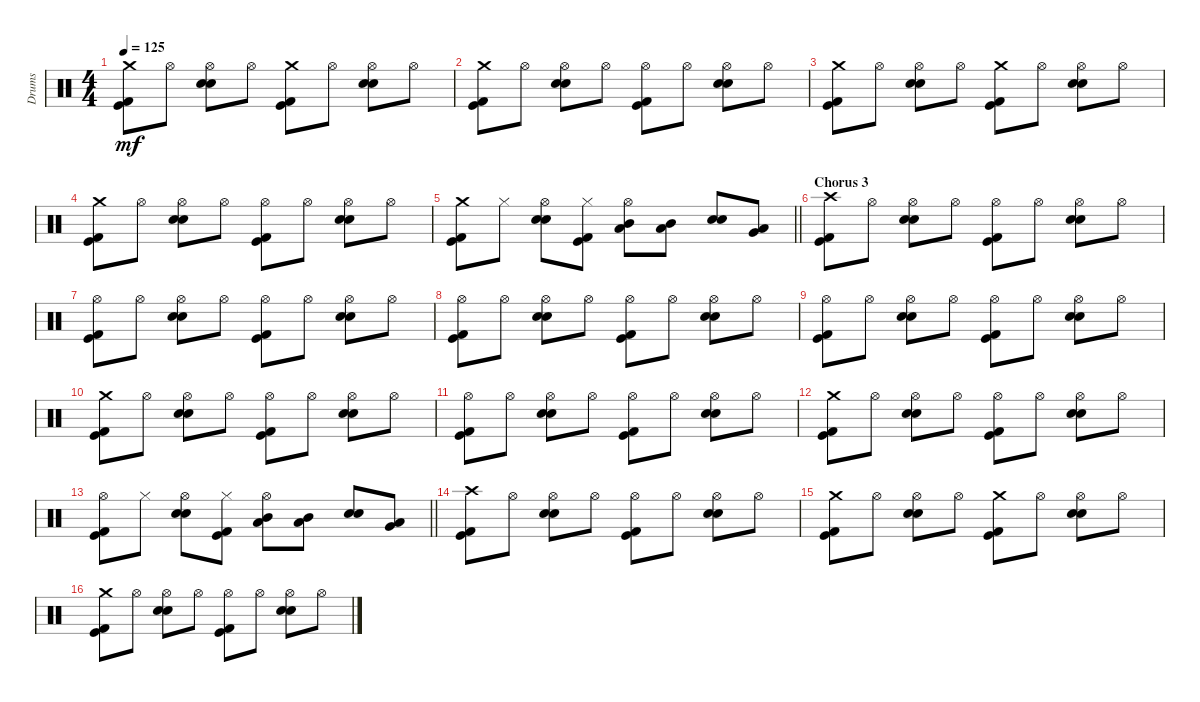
\track ("Drums" "Drums") {instrument percussion}
\staff {score}
\articulation defaults
\ts (4 4)
\tempo 125
\clef neutral
\ks c
("Crash medium (hit)" "Kick (hit) 2" "Kick (hit)").8{dy mf} "Hi-Hat (open)".8 ("Hi-Hat (open)" "Snare (hit) 2" "Electric Snare (hit)").8 "Hi-Hat (open)".8 ("Crash medium (hit)" "Kick (hit) 2" "Kick (hit)").8 "Hi-Hat (open)".8 ("Hi-Hat (open)" "Snare (hit) 2" "Electric Snare (hit)").8 "Hi-Hat (open)".8 |
("Crash medium (hit)" "Kick (hit) 2" "Kick (hit)").8 "Hi-Hat (open)".8 ("Hi-Hat (open)" "Snare (hit) 2" "Electric Snare (hit)").8 "Hi-Hat (open)".8 ("Hi-Hat (open)" "Kick (hit) 2" "Kick (hit)").8 "Hi-Hat (open)".8 ("Hi-Hat (open)" "Snare (hit) 2" "Electric Snare (hit)").8 "Hi-Hat (open)".8 |
("Crash medium (hit)" "Kick (hit) 2" "Kick (hit)").8 "Hi-Hat (open)".8 ("Hi-Hat (open)" "Snare (hit) 2" "Electric Snare (hit)").8 "Hi-Hat (open)".8 ("Crash medium (hit)" "Kick (hit) 2" "Kick (hit)").8 "Hi-Hat (open)".8 ("Hi-Hat (open)" "Snare (hit) 2" "Electric Snare (hit)").8 "Hi-Hat (open)".8 |
("Crash medium (hit)" "Kick (hit) 2" "Kick (hit)").8 "Hi-Hat (open)".8 ("Hi-Hat (open)" "Snare (hit) 2" "Electric Snare (hit)").8 "Hi-Hat (open)".8 ("Hi-Hat (open)" "Kick (hit) 2" "Kick (hit)").8 "Hi-Hat (open)".8 ("Hi-Hat (open)" "Snare (hit) 2" "Electric Snare (hit)").8 "Hi-Hat (open)".8 |
\barLineRight lightlight
("Crash medium (hit)" "Kick (hit) 2" "Kick (hit)").8 "Hi-Hat (closed)".8 ("Hi-Hat (open)" "Snare (hit) 2" "Electric Snare (hit)").8 ("Hi-Hat (closed)" "Kick (hit) 2" "Kick (hit)").8 ("Hi-Hat (open)" "Mid Tom (hit)" "Low Tom (hit)").8 ("Mid Tom (hit)" "Low Tom (hit)").8 ("Snare (hit) 2" "Electric Snare (hit)").8 ("Low Tom (hit)" "Very Low Tom (hit)").8 |
\section ("" "Chorus 3")
("Crash high (hit)" "Kick (hit) 2" "Kick (hit)").8 "Hi-Hat (open)".8 ("Hi-Hat (open)" "Snare (hit) 2" "Electric Snare (hit)").8 "Hi-Hat (open)".8 ("Hi-Hat (open)" "Kick (hit) 2" "Kick (hit)").8 "Hi-Hat (open)".8 ("Hi-Hat (open)" "Snare (hit) 2" "Electric Snare (hit)").8 "Hi-Hat (open)".8 |
("Hi-Hat (open)" "Kick (hit) 2" "Kick (hit)").8 "Hi-Hat (open)".8 ("Hi-Hat (open)" "Snare (hit) 2" "Electric Snare (hit)").8 "Hi-Hat (open)".8 ("Hi-Hat (open)" "Kick (hit) 2" "Kick (hit)").8 "Hi-Hat (open)".8 ("Hi-Hat (open)" "Snare (hit) 2" "Electric Snare (hit)").8 "Hi-Hat (open)".8 |
("Hi-Hat (open)" "Kick (hit) 2" "Kick (hit)").8 "Hi-Hat (open)".8 ("Hi-Hat (open)" "Snare (hit) 2" "Electric Snare (hit)").8 "Hi-Hat (open)".8 ("Hi-Hat (open)" "Kick (hit) 2" "Kick (hit)").8 "Hi-Hat (open)".8 ("Hi-Hat (open)" "Snare (hit) 2" "Electric Snare (hit)").8 "Hi-Hat (open)".8 |
("Hi-Hat (open)" "Kick (hit) 2" "Kick (hit)").8 "Hi-Hat (open)".8 ("Hi-Hat (open)" "Snare (hit) 2" "Electric Snare (hit)").8 "Hi-Hat (open)".8 ("Hi-Hat (open)" "Kick (hit) 2" "Kick (hit)").8 "Hi-Hat (open)".8 ("Hi-Hat (open)" "Snare (hit) 2" "Electric Snare (hit)").8 "Hi-Hat (open)".8 |
("Crash medium (hit)" "Kick (hit) 2" "Kick (hit)").8 "Hi-Hat (open)".8 ("Hi-Hat (open)" "Snare (hit) 2" "Electric Snare (hit)").8 "Hi-Hat (open)".8 ("Hi-Hat (open)" "Kick (hit) 2" "Kick (hit)").8 "Hi-Hat (open)".8 ("Hi-Hat (open)" "Snare (hit) 2" "Electric Snare (hit)").8 "Hi-Hat (open)".8 |
("Hi-Hat (open)" "Kick (hit) 2" "Kick (hit)").8 "Hi-Hat (open)".8 ("Hi-Hat (open)" "Snare (hit) 2" "Electric Snare (hit)").8 "Hi-Hat (open)".8 ("Hi-Hat (open)" "Kick (hit) 2" "Kick (hit)").8 "Hi-Hat (open)".8 ("Hi-Hat (open)" "Snare (hit) 2" "Electric Snare (hit)").8 "Hi-Hat (open)".8 |
("Crash medium (hit)" "Kick (hit) 2" "Kick (hit)").8 "Hi-Hat (open)".8 ("Hi-Hat (open)" "Snare (hit) 2" "Electric Snare (hit)").8 "Hi-Hat (open)".8 ("Hi-Hat (open)" "Kick (hit) 2" "Kick (hit)").8 "Hi-Hat (open)".8 ("Hi-Hat (open)" "Snare (hit) 2" "Electric Snare (hit)").8 "Hi-Hat (open)".8 |
\barLineRight lightlight
("Hi-Hat (open)" "Kick (hit) 2" "Kick (hit)").8 "Hi-Hat (closed)".8 ("Hi-Hat (open)" "Snare (hit) 2" "Electric Snare (hit)").8 ("Hi-Hat (closed)" "Kick (hit) 2" "Kick (hit)").8 ("Hi-Hat (open)" "Mid Tom (hit)" "Low Tom (hit)").8 ("Mid Tom (hit)" "Low Tom (hit)").8 ("Snare (hit) 2" "Electric Snare (hit)").8 ("Low Tom (hit)" "Very Low Tom (hit)").8 |
("Crash high (hit)" "Kick (hit) 2" "Kick (hit)").8 "Hi-Hat (open)".8 ("Hi-Hat (open)" "Snare (hit) 2" "Electric Snare (hit)").8 "Hi-Hat (open)".8 ("Hi-Hat (open)" "Kick (hit) 2" "Kick (hit)").8 "Hi-Hat (open)".8 ("Hi-Hat (open)" "Snare (hit) 2" "Electric Snare (hit)").8 "Hi-Hat (open)".8 |
("Crash medium (hit)" "Kick (hit) 2" "Kick (hit)").8 "Hi-Hat (open)".8 ("Hi-Hat (open)" "Snare (hit) 2" "Electric Snare (hit)").8 "Hi-Hat (open)".8 ("Crash medium (hit)" "Kick (hit) 2" "Kick (hit)").8 "Hi-Hat (open)".8 ("Hi-Hat (open)" "Snare (hit) 2" "Electric Snare (hit)").8 "Hi-Hat (open)".8 |
("Crash medium (hit)" "Kick (hit) 2" "Kick (hit)").8 "Hi-Hat (open)".8 ("Hi-Hat (open)" "Snare (hit) 2" "Electric Snare (hit)").8 "Hi-Hat (open)".8 ("Hi-Hat (open)" "Kick (hit) 2" "Kick (hit)").8 "Hi-Hat (open)".8 ("Hi-Hat (open)" "Snare (hit) 2" "Electric Snare (hit)").8 "Hi-Hat (open)".8
